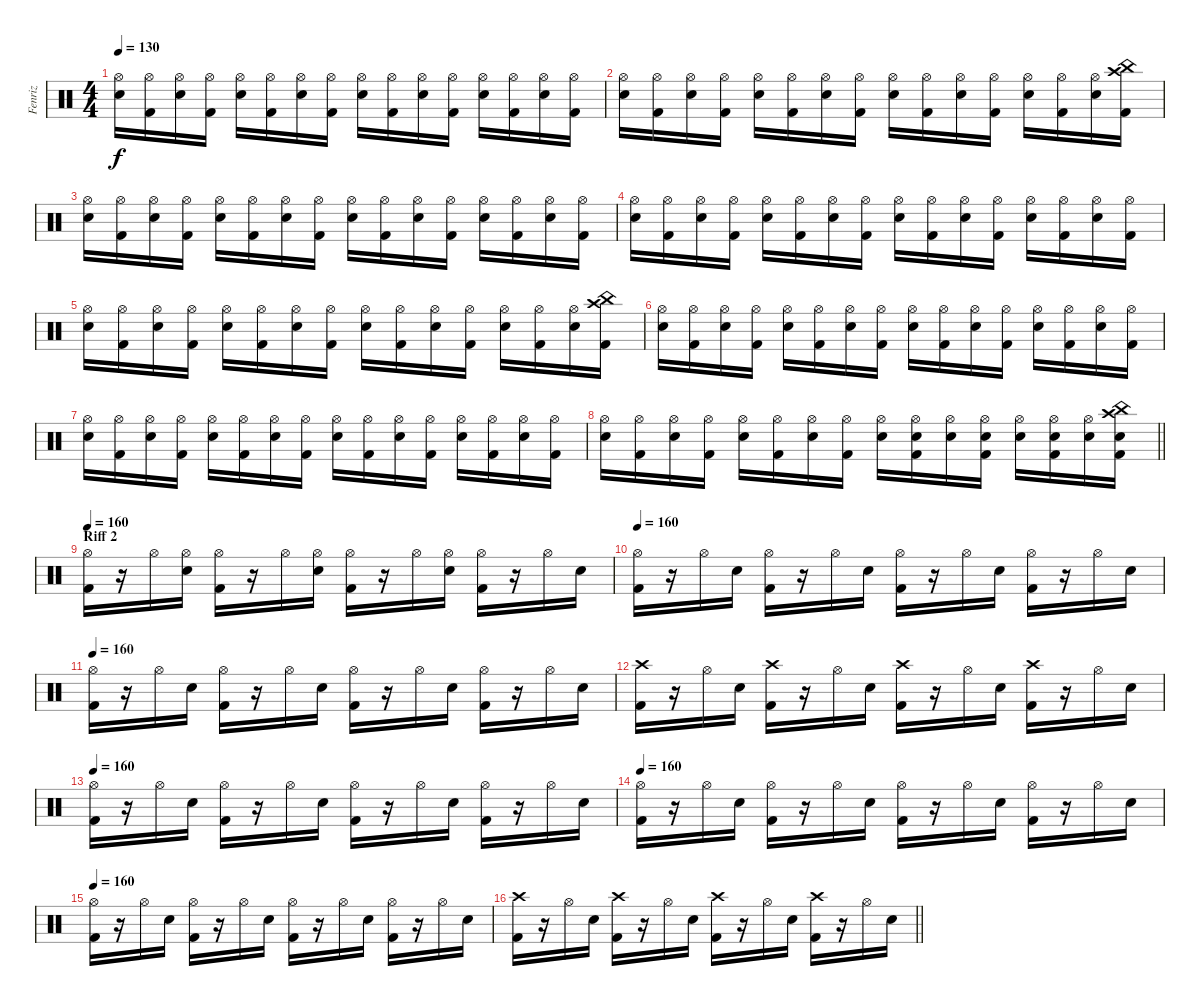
\track ("Fenriz" "Fenriz") {instrument percussion}
\staff {score}
\articulation defaults
\ts (4 4)
\tempo 130
\clef neutral
\ks c
("Hi-Hat (open)" "Electric Snare (hit)").16{dy f} ("Hi-Hat (open)" "Kick (hit) 2").16 ("Hi-Hat (open)" "Electric Snare (hit)").16 ("Hi-Hat (open)" "Kick (hit) 2").16 ("Hi-Hat (open)" "Electric Snare (hit)").16 ("Hi-Hat (open)" "Kick (hit) 2").16 ("Hi-Hat (open)" "Electric Snare (hit)").16 ("Hi-Hat (open)" "Kick (hit) 2").16 ("Hi-Hat (open)" "Electric Snare (hit)").16 ("Hi-Hat (open)" "Kick (hit) 2").16 ("Hi-Hat (open)" "Electric Snare (hit)").16 ("Hi-Hat (open)" "Kick (hit) 2").16 ("Hi-Hat (open)" "Electric Snare (hit)").16 ("Hi-Hat (open)" "Kick (hit) 2").16 ("Hi-Hat (open)" "Electric Snare (hit)").16 ("Hi-Hat (open)" "Kick (hit) 2").16 |
("Hi-Hat (open)" "Electric Snare (hit)").16 ("Hi-Hat (open)" "Kick (hit) 2").16 ("Hi-Hat (open)" "Electric Snare (hit)").16 ("Hi-Hat (open)" "Kick (hit) 2").16 ("Hi-Hat (open)" "Electric Snare (hit)").16 ("Hi-Hat (open)" "Kick (hit) 2").16 ("Hi-Hat (open)" "Electric Snare (hit)").16 ("Hi-Hat (open)" "Kick (hit) 2").16 ("Hi-Hat (open)" "Electric Snare (hit)").16 ("Hi-Hat (open)" "Kick (hit) 2").16 ("Hi-Hat (open)" "Electric Snare (hit)").16 ("Hi-Hat (open)" "Kick (hit) 2").16 ("Hi-Hat (open)" "Electric Snare (hit)").16 ("Hi-Hat (open)" "Kick (hit) 2").16 ("Hi-Hat (open)" "Electric Snare (hit)").16 ("China (hit)" "Crash high (hit)" "Kick (hit) 2").16 |
("Hi-Hat (open)" "Electric Snare (hit)").16 ("Hi-Hat (open)" "Kick (hit) 2").16 ("Hi-Hat (open)" "Electric Snare (hit)").16 ("Hi-Hat (open)" "Kick (hit) 2").16 ("Hi-Hat (open)" "Electric Snare (hit)").16 ("Hi-Hat (open)" "Kick (hit) 2").16 ("Hi-Hat (open)" "Electric Snare (hit)").16 ("Hi-Hat (open)" "Kick (hit) 2").16 ("Hi-Hat (open)" "Electric Snare (hit)").16 ("Hi-Hat (open)" "Kick (hit) 2").16 ("Hi-Hat (open)" "Electric Snare (hit)").16 ("Hi-Hat (open)" "Kick (hit) 2").16 ("Hi-Hat (open)" "Electric Snare (hit)").16 ("Hi-Hat (open)" "Kick (hit) 2").16 ("Hi-Hat (open)" "Electric Snare (hit)").16 ("Hi-Hat (open)" "Kick (hit) 2").16 |
("Hi-Hat (open)" "Electric Snare (hit)").16 ("Hi-Hat (open)" "Kick (hit) 2").16 ("Hi-Hat (open)" "Electric Snare (hit)").16 ("Hi-Hat (open)" "Kick (hit) 2").16 ("Hi-Hat (open)" "Electric Snare (hit)").16 ("Hi-Hat (open)" "Kick (hit) 2").16 ("Hi-Hat (open)" "Electric Snare (hit)").16 ("Hi-Hat (open)" "Kick (hit) 2").16 ("Hi-Hat (open)" "Electric Snare (hit)").16 ("Hi-Hat (open)" "Kick (hit) 2").16 ("Hi-Hat (open)" "Electric Snare (hit)").16 ("Hi-Hat (open)" "Kick (hit) 2").16 ("Hi-Hat (open)" "Electric Snare (hit)").16 ("Hi-Hat (open)" "Kick (hit) 2").16 ("Hi-Hat (open)" "Electric Snare (hit)").16 ("Hi-Hat (open)" "Kick (hit) 2").16 |
("Hi-Hat (open)" "Electric Snare (hit)").16 ("Hi-Hat (open)" "Kick (hit) 2").16 ("Hi-Hat (open)" "Electric Snare (hit)").16 ("Hi-Hat (open)" "Kick (hit) 2").16 ("Hi-Hat (open)" "Electric Snare (hit)").16 ("Hi-Hat (open)" "Kick (hit) 2").16 ("Hi-Hat (open)" "Electric Snare (hit)").16 ("Hi-Hat (open)" "Kick (hit) 2").16 ("Hi-Hat (open)" "Electric Snare (hit)").16 ("Hi-Hat (open)" "Kick (hit) 2").16 ("Hi-Hat (open)" "Electric Snare (hit)").16 ("Hi-Hat (open)" "Kick (hit) 2").16 ("Hi-Hat (open)" "Electric Snare (hit)").16 ("Hi-Hat (open)" "Kick (hit) 2").16 ("Hi-Hat (open)" "Electric Snare (hit)").16 ("China (hit)" "Crash high (hit)" "Kick (hit) 2").16 |
("Hi-Hat (open)" "Electric Snare (hit)").16 ("Hi-Hat (open)" "Kick (hit) 2").16 ("Hi-Hat (open)" "Electric Snare (hit)").16 ("Hi-Hat (open)" "Kick (hit) 2").16 ("Hi-Hat (open)" "Electric Snare (hit)").16 ("Hi-Hat (open)" "Kick (hit) 2").16 ("Hi-Hat (open)" "Electric Snare (hit)").16 ("Hi-Hat (open)" "Kick (hit) 2").16 ("Hi-Hat (open)" "Electric Snare (hit)").16 ("Hi-Hat (open)" "Kick (hit) 2").16 ("Hi-Hat (open)" "Electric Snare (hit)").16 ("Hi-Hat (open)" "Kick (hit) 2").16 ("Hi-Hat (open)" "Electric Snare (hit)").16 ("Hi-Hat (open)" "Kick (hit) 2").16 ("Hi-Hat (open)" "Electric Snare (hit)").16 ("Hi-Hat (open)" "Kick (hit) 2").16 |
("Hi-Hat (open)" "Electric Snare (hit)").16 ("Hi-Hat (open)" "Kick (hit) 2").16 ("Hi-Hat (open)" "Electric Snare (hit)").16 ("Hi-Hat (open)" "Kick (hit) 2").16 ("Hi-Hat (open)" "Electric Snare (hit)").16 ("Hi-Hat (open)" "Kick (hit) 2").16 ("Hi-Hat (open)" "Electric Snare (hit)").16 ("Hi-Hat (open)" "Kick (hit) 2").16 ("Hi-Hat (open)" "Electric Snare (hit)").16 ("Hi-Hat (open)" "Kick (hit) 2").16 ("Hi-Hat (open)" "Electric Snare (hit)").16 ("Hi-Hat (open)" "Kick (hit) 2").16 ("Hi-Hat (open)" "Electric Snare (hit)").16 ("Hi-Hat (open)" "Kick (hit) 2").16 ("Hi-Hat (open)" "Electric Snare (hit)").16 ("Hi-Hat (open)" "Kick (hit) 2").16 |
\barLineRight lightlight
("Hi-Hat (open)" "Electric Snare (hit)").16 ("Hi-Hat (open)" "Kick (hit) 2").16 ("Hi-Hat (open)" "Electric Snare (hit)").16 ("Hi-Hat (open)" "Kick (hit) 2").16 ("Hi-Hat (open)" "Electric Snare (hit)").16 ("Hi-Hat (open)" "Kick (hit) 2").16 ("Hi-Hat (open)" "Electric Snare (hit)").16 ("Hi-Hat (open)" "Kick (hit) 2").16 ("Hi-Hat (open)" "Electric Snare (hit)").16 ("Hi-Hat (open)" "Electric Snare (hit)" "Kick (hit) 2").16 ("Hi-Hat (open)" "Electric Snare (hit)").16 ("Hi-Hat (open)" "Electric Snare (hit)" "Kick (hit) 2").16 ("Hi-Hat (open)" "Electric Snare (hit)").16 ("Hi-Hat (open)" "Electric Snare (hit)" "Kick (hit) 2").16 ("Hi-Hat (open)" "Electric Snare (hit)").16 ("China (hit)" "Crash high (hit)" "Electric Snare (hit)" "Kick (hit) 2").16 |
\section ("" "Riff 2")
\tempo 160
("Hi-Hat (open)" "Kick (hit) 2").16 r.16 "Hi-Hat (open)".16 ("Hi-Hat (open)" "Electric Snare (hit)").16 ("Hi-Hat (open)" "Kick (hit) 2").16 r.16 "Hi-Hat (open)".16 ("Hi-Hat (open)" "Electric Snare (hit)").16 ("Hi-Hat (open)" "Kick (hit) 2").16 r.16 "Hi-Hat (open)".16 ("Hi-Hat (open)" "Electric Snare (hit)").16 ("Hi-Hat (open)" "Kick (hit) 2").16 r.16 "Hi-Hat (open)".16 "Electric Snare (hit)".16 |
\tempo 160
("Hi-Hat (open)" "Kick (hit) 2").16 r.16 "Hi-Hat (open)".16 "Electric Snare (hit)".16 ("Hi-Hat (open)" "Kick (hit) 2").16 r.16 "Hi-Hat (open)".16 "Electric Snare (hit)".16 ("Hi-Hat (open)" "Kick (hit) 2").16 r.16 "Hi-Hat (open)".16 "Electric Snare (hit)".16 ("Hi-Hat (open)" "Kick (hit) 2").16 r.16 "Hi-Hat (open)".16 "Electric Snare (hit)".16 |
\tempo 160
("Hi-Hat (open)" "Kick (hit) 2").16 r.16 "Hi-Hat (open)".16 "Electric Snare (hit)".16 ("Hi-Hat (open)" "Kick (hit) 2").16 r.16 "Hi-Hat (open)".16 "Electric Snare (hit)".16 ("Hi-Hat (open)" "Kick (hit) 2").16 r.16 "Hi-Hat (open)".16 "Electric Snare (hit)".16 ("Hi-Hat (open)" "Kick (hit) 2").16 r.16 "Hi-Hat (open)".16 "Electric Snare (hit)".16 |
("Crash high (hit)" "Kick (hit) 2").16 r.16 "Hi-Hat (open)".16 "Electric Snare (hit)".16 ("Crash high (hit)" "Kick (hit) 2").16 r.16 "Hi-Hat (open)".16 "Electric Snare (hit)".16 ("Crash high (hit)" "Kick (hit) 2").16 r.16 "Hi-Hat (open)".16 "Electric Snare (hit)".16 ("Crash high (hit)" "Kick (hit) 2").16 r.16 "Hi-Hat (open)".16 "Electric Snare (hit)".16 |
\tempo 160
("Hi-Hat (open)" "Kick (hit) 2").16 r.16 "Hi-Hat (open)".16 "Electric Snare (hit)".16 ("Hi-Hat (open)" "Kick (hit) 2").16 r.16 "Hi-Hat (open)".16 "Electric Snare (hit)".16 ("Hi-Hat (open)" "Kick (hit) 2").16 r.16 "Hi-Hat (open)".16 "Electric Snare (hit)".16 ("Hi-Hat (open)" "Kick (hit) 2").16 r.16 "Hi-Hat (open)".16 "Electric Snare (hit)".16 |
\tempo 160
("Hi-Hat (open)" "Kick (hit) 2").16 r.16 "Hi-Hat (open)".16 "Electric Snare (hit)".16 ("Hi-Hat (open)" "Kick (hit) 2").16 r.16 "Hi-Hat (open)".16 "Electric Snare (hit)".16 ("Hi-Hat (open)" "Kick (hit) 2").16 r.16 "Hi-Hat (open)".16 "Electric Snare (hit)".16 ("Hi-Hat (open)" "Kick (hit) 2").16 r.16 "Hi-Hat (open)".16 "Electric Snare (hit)".16 |
\tempo 160
("Hi-Hat (open)" "Kick (hit) 2").16 r.16 "Hi-Hat (open)".16 "Electric Snare (hit)".16 ("Hi-Hat (open)" "Kick (hit) 2").16 r.16 "Hi-Hat (open)".16 "Electric Snare (hit)".16 ("Hi-Hat (open)" "Kick (hit) 2").16 r.16 "Hi-Hat (open)".16 "Electric Snare (hit)".16 ("Hi-Hat (open)" "Kick (hit) 2").16 r.16 "Hi-Hat (open)".16 "Electric Snare (hit)".16 |
\barLineRight lightlight
("Crash high (hit)" "Kick (hit) 2").16 r.16 "Hi-Hat (open)".16 "Electric Snare (hit)".16 ("Crash high (hit)" "Kick (hit) 2").16 r.16 "Hi-Hat (open)".16 "Electric Snare (hit)".16 ("Crash high (hit)" "Kick (hit) 2").16 r.16 "Hi-Hat (open)".16 "Electric Snare (hit)".16 ("Crash high (hit)" "Kick (hit) 2").16 r.16 "Hi-Hat (open)".16 "Electric Snare (hit)".16
